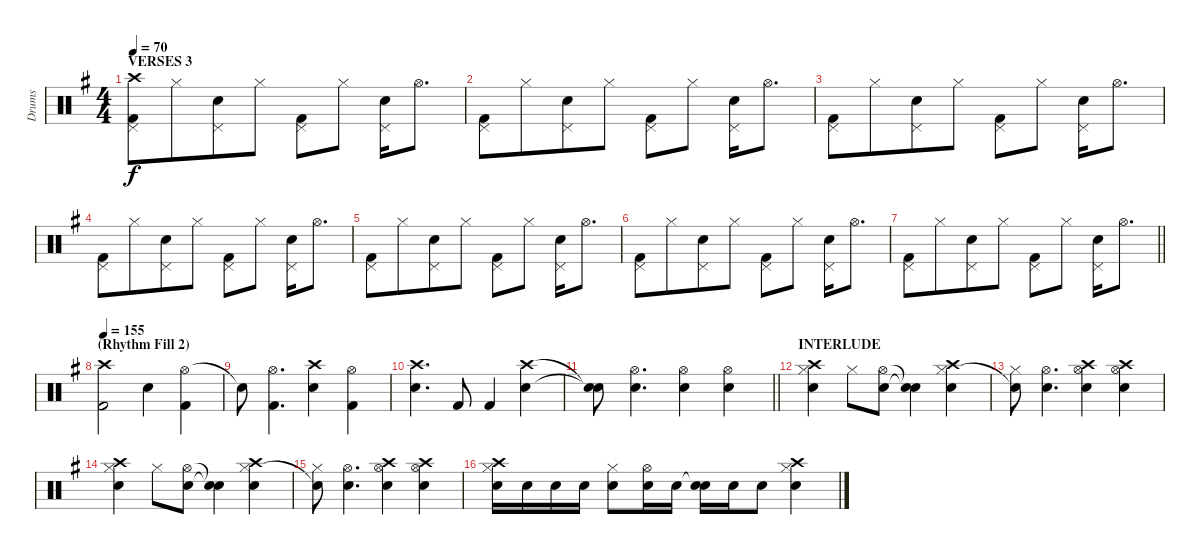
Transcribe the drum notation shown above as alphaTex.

\track ("Drums" "Drums") {instrument percussion}
\staff {score}
\articulation defaults
\ts (4 4)
\section ("" "VERSES 3")
\tempo 70
\clef neutral
\ks eminor
("Crash high (hit)" "Pedal Hi-Hat (hit)" "Kick (hit) 2").8{dy f} "Hi-Hat (closed)".8{beam merge} ("Pedal Hi-Hat (hit)" "Electric Snare (hit)").8 "Hi-Hat (closed)".8 ("Pedal Hi-Hat (hit)" "Kick (hit) 2").8 "Hi-Hat (closed)".8 ("Pedal Hi-Hat (hit)" "Electric Snare (hit)").16 "Hi-Hat (open)".8{d} |
("Pedal Hi-Hat (hit)" "Kick (hit) 2").8 "Hi-Hat (closed)".8{beam merge} ("Pedal Hi-Hat (hit)" "Electric Snare (hit)").8 "Hi-Hat (closed)".8 ("Pedal Hi-Hat (hit)" "Kick (hit) 2").8 "Hi-Hat (closed)".8 ("Pedal Hi-Hat (hit)" "Electric Snare (hit)").16 "Hi-Hat (open)".8{d} |
("Pedal Hi-Hat (hit)" "Kick (hit) 2").8 "Hi-Hat (closed)".8{beam merge} ("Pedal Hi-Hat (hit)" "Electric Snare (hit)").8 "Hi-Hat (closed)".8 ("Pedal Hi-Hat (hit)" "Kick (hit) 2").8 "Hi-Hat (closed)".8 ("Pedal Hi-Hat (hit)" "Electric Snare (hit)").16 "Hi-Hat (open)".8{d} |
("Pedal Hi-Hat (hit)" "Kick (hit) 2").8 "Hi-Hat (closed)".8{beam merge} ("Pedal Hi-Hat (hit)" "Electric Snare (hit)").8 "Hi-Hat (closed)".8 ("Pedal Hi-Hat (hit)" "Kick (hit) 2").8 "Hi-Hat (closed)".8 ("Pedal Hi-Hat (hit)" "Electric Snare (hit)").16 "Hi-Hat (open)".8{d} |
("Pedal Hi-Hat (hit)" "Kick (hit) 2").8 "Hi-Hat (closed)".8{beam merge} ("Pedal Hi-Hat (hit)" "Electric Snare (hit)").8 "Hi-Hat (closed)".8 ("Pedal Hi-Hat (hit)" "Kick (hit) 2").8 "Hi-Hat (closed)".8 ("Pedal Hi-Hat (hit)" "Electric Snare (hit)").16 "Hi-Hat (open)".8{d} |
("Pedal Hi-Hat (hit)" "Kick (hit) 2").8 "Hi-Hat (closed)".8{beam merge} ("Pedal Hi-Hat (hit)" "Electric Snare (hit)").8 "Hi-Hat (closed)".8 ("Pedal Hi-Hat (hit)" "Kick (hit) 2").8 "Hi-Hat (closed)".8 ("Pedal Hi-Hat (hit)" "Electric Snare (hit)").16 "Hi-Hat (open)".8{d} |
\barLineRight lightlight
("Pedal Hi-Hat (hit)" "Kick (hit) 2").8 "Hi-Hat (closed)".8{beam merge} ("Pedal Hi-Hat (hit)" "Electric Snare (hit)").8 "Hi-Hat (closed)".8 ("Pedal Hi-Hat (hit)" "Kick (hit) 2").8 "Hi-Hat (closed)".8 ("Pedal Hi-Hat (hit)" "Electric Snare (hit)").16 "Hi-Hat (open)".8{d} |
\section ("" "(Rhythm Fill 2)")
\tempo 155
("Crash high (hit)" "Kick (hit) 2").2 "Electric Snare (hit)".4 ("Hi-Hat (open)" "Kick (hit) 2").4 |
"Snare (hit)"{t}.8 ("Hi-Hat (open)" "Kick (hit) 2").4{d} ("Crash high (hit)" "Electric Snare (hit)").4 ("Hi-Hat (open)" "Kick (hit) 2").4 |
("Crash high (hit)" "Electric Snare (hit)").4{d} "Kick (hit) 2".8 "Kick (hit) 2".4 ("Crash high (hit)" "Electric Snare (hit)").4 |
\barLineRight lightlight
("Snare (hit)"{t} "Snare (hit)"{t}).8 ("Hi-Hat (open)" "Electric Snare (hit)").4{d} ("Hi-Hat (open)" "Electric Snare (hit)").4 ("Hi-Hat (open)" "Electric Snare (hit)").4 |
\section ("" "INTERLUDE")
("Crash high (hit)" "Hi-Hat (closed)" "Electric Snare (hit)").4 "Hi-Hat (closed)".8 ("Hi-Hat (open)" "Electric Snare (hit)").8 ("Snare (hit)"{t} "Snare (hit)"{t}).4 ("Crash high (hit)" "Hi-Hat (closed)" "Electric Snare (hit)").4 |
("Hi-Hat (closed)" "Snare (hit)"{t}).8 ("Hi-Hat (open)" "Electric Snare (hit)").4{d} ("Crash high (hit)" "Hi-Hat (open)" "Electric Snare (hit)").4 ("Crash high (hit)" "Hi-Hat (open)" "Electric Snare (hit)").4 |
("Crash high (hit)" "Hi-Hat (closed)" "Electric Snare (hit)").4 "Hi-Hat (closed)".8 ("Hi-Hat (open)" "Electric Snare (hit)").8 ("Snare (hit)"{t} "Snare (hit)"{t}).4 ("Crash high (hit)" "Hi-Hat (closed)" "Electric Snare (hit)").4 |
("Hi-Hat (closed)" "Snare (hit)"{t}).8 ("Hi-Hat (open)" "Electric Snare (hit)").4{d} ("Crash high (hit)" "Hi-Hat (open)" "Electric Snare (hit)").4 ("Crash high (hit)" "Hi-Hat (open)" "Electric Snare (hit)").4 |
("Crash high (hit)" "Hi-Hat (closed)" "Electric Snare (hit)").16 "Electric Snare (hit)".16 "Electric Snare (hit)".16 "Electric Snare (hit)".16 ("Hi-Hat (closed)" "Electric Snare (hit)").8 ("Hi-Hat (open)" "Electric Snare (hit)").16 "Electric Snare (hit)".16 ("Snare (hit)"{t} "Electric Snare (hit)").16 "Electric Snare (hit)".16 "Electric Snare (hit)".8 ("Crash high (hit)" "Hi-Hat (closed)" "Electric Snare (hit)").4
